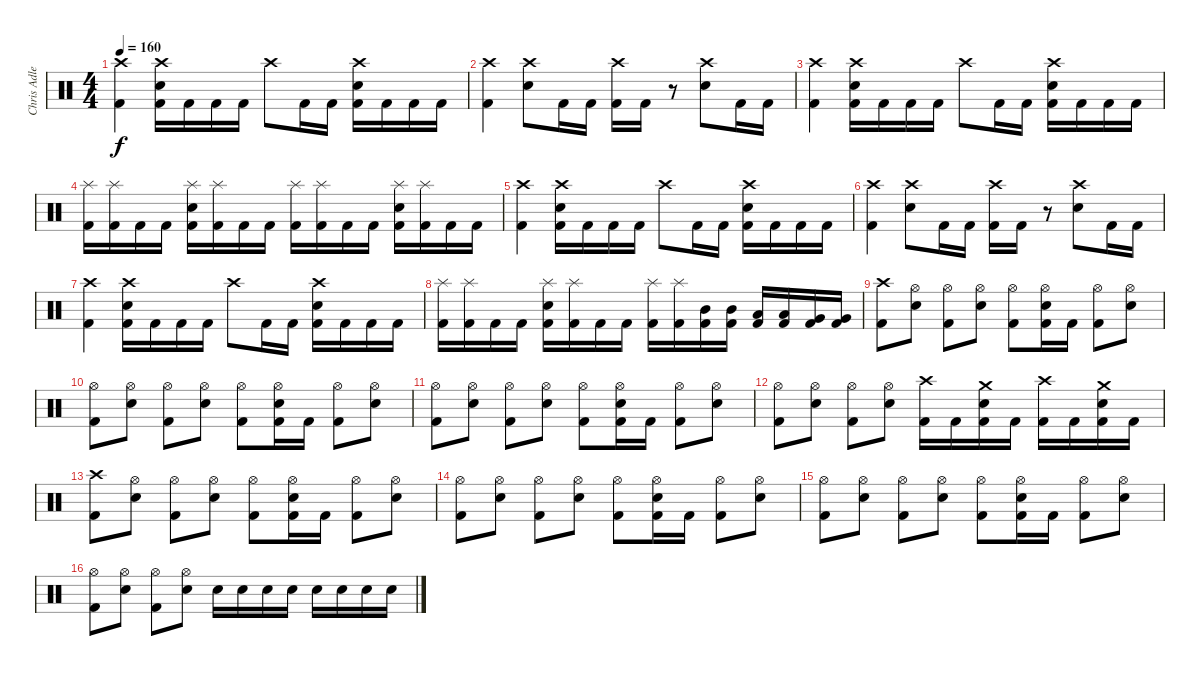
\track ("Chris Adler" "Chris Adle") {instrument percussion}
\staff {score}
\articulation defaults
\ts (4 4)
\tempo 160
\clef neutral
\ks c
("Crash high (hit)" "Kick (hit) 2").4{dy f} ("Crash high (hit)" "Electric Snare (hit)" "Kick (hit) 2").16 "Kick (hit) 2".16 "Kick (hit) 2".16 "Kick (hit) 2".16 "Crash high (hit)".8 "Kick (hit) 2".16 "Kick (hit) 2".16 ("Crash high (hit)" "Electric Snare (hit)" "Kick (hit) 2").16 "Kick (hit) 2".16 "Kick (hit) 2".16 "Kick (hit) 2".16 |
("Crash high (hit)" "Kick (hit) 2").4 ("Crash high (hit)" "Electric Snare (hit)").8 "Kick (hit) 2".16 "Kick (hit) 2".16 ("Crash high (hit)" "Kick (hit) 2").16 "Kick (hit) 2".16 r.8 ("Crash high (hit)" "Electric Snare (hit)").8 "Kick (hit) 2".16 "Kick (hit) 2".16 |
("Crash high (hit)" "Kick (hit) 2").4 ("Crash high (hit)" "Electric Snare (hit)" "Kick (hit) 2").16 "Kick (hit) 2".16 "Kick (hit) 2".16 "Kick (hit) 2".16 "Crash high (hit)".8 "Kick (hit) 2".16 "Kick (hit) 2".16 ("Crash high (hit)" "Electric Snare (hit)" "Kick (hit) 2").16 "Kick (hit) 2".16 "Kick (hit) 2".16 "Kick (hit) 2".16 |
("Splash (hit)" "Kick (hit) 2").16 ("Splash (hit)" "Kick (hit) 2").16 "Kick (hit) 2".16 "Kick (hit) 2".16 ("Splash (hit)" "Electric Snare (hit)" "Kick (hit) 2").16 ("Splash (hit)" "Kick (hit) 2").16 "Kick (hit) 2".16 "Kick (hit) 2".16 ("Splash (hit)" "Kick (hit) 2").16 ("Splash (hit)" "Kick (hit) 2").16 "Kick (hit) 2".16 "Kick (hit) 2".16 ("Splash (hit)" "Electric Snare (hit)" "Kick (hit) 2").16 ("Splash (hit)" "Kick (hit) 2").16 "Kick (hit) 2".16 "Kick (hit) 2".16 |
("Crash high (hit)" "Kick (hit) 2").4 ("Crash high (hit)" "Electric Snare (hit)" "Kick (hit) 2").16 "Kick (hit) 2".16 "Kick (hit) 2".16 "Kick (hit) 2".16 "Crash high (hit)".8 "Kick (hit) 2".16 "Kick (hit) 2".16 ("Crash high (hit)" "Electric Snare (hit)" "Kick (hit) 2").16 "Kick (hit) 2".16 "Kick (hit) 2".16 "Kick (hit) 2".16 |
("Crash high (hit)" "Kick (hit) 2").4 ("Crash high (hit)" "Electric Snare (hit)").8 "Kick (hit) 2".16 "Kick (hit) 2".16 ("Crash high (hit)" "Kick (hit) 2").16 "Kick (hit) 2".16 r.8 ("Crash high (hit)" "Electric Snare (hit)").8 "Kick (hit) 2".16 "Kick (hit) 2".16 |
("Crash high (hit)" "Kick (hit) 2").4 ("Crash high (hit)" "Electric Snare (hit)" "Kick (hit) 2").16 "Kick (hit) 2".16 "Kick (hit) 2".16 "Kick (hit) 2".16 "Crash high (hit)".8 "Kick (hit) 2".16 "Kick (hit) 2".16 ("Crash high (hit)" "Electric Snare (hit)" "Kick (hit) 2").16 "Kick (hit) 2".16 "Kick (hit) 2".16 "Kick (hit) 2".16 |
("Splash (hit)" "Kick (hit) 2").16 ("Splash (hit)" "Kick (hit) 2").16 "Kick (hit) 2".16 "Kick (hit) 2".16 ("Splash (hit)" "Electric Snare (hit)" "Kick (hit) 2").16 ("Splash (hit)" "Kick (hit) 2").16 "Kick (hit) 2".16 "Kick (hit) 2".16 ("Splash (hit)" "Kick (hit) 2").16 ("Splash (hit)" "Kick (hit) 2").16 ("Mid Tom (hit)" "Kick (hit) 2").16 ("Mid Tom (hit)" "Kick (hit) 2").16 ("Low Tom (hit)" "Kick (hit) 2").16 ("Low Tom (hit)" "Kick (hit) 2").16 ("Very Low Tom (hit)" "Kick (hit) 2").16 ("Very Low Tom (hit)" "Kick (hit) 2").16 |
("Crash high (hit)" "Kick (hit) 2").8 ("Hi-Hat (open)" "Electric Snare (hit)").8 ("Hi-Hat (open)" "Kick (hit) 2").8 ("Hi-Hat (open)" "Electric Snare (hit)").8 ("Hi-Hat (open)" "Kick (hit) 2").8 ("Hi-Hat (open)" "Electric Snare (hit)" "Kick (hit) 2").16 "Kick (hit) 2".16 ("Hi-Hat (open)" "Kick (hit) 2").8 ("Hi-Hat (open)" "Electric Snare (hit)").8 |
("Hi-Hat (open)" "Kick (hit) 2").8 ("Hi-Hat (open)" "Electric Snare (hit)").8 ("Hi-Hat (open)" "Kick (hit) 2").8 ("Hi-Hat (open)" "Electric Snare (hit)").8 ("Hi-Hat (open)" "Kick (hit) 2").8 ("Hi-Hat (open)" "Electric Snare (hit)" "Kick (hit) 2").16 "Kick (hit) 2".16 ("Hi-Hat (open)" "Kick (hit) 2").8 ("Hi-Hat (open)" "Electric Snare (hit)").8 |
("Hi-Hat (open)" "Kick (hit) 2").8 ("Hi-Hat (open)" "Electric Snare (hit)").8 ("Hi-Hat (open)" "Kick (hit) 2").8 ("Hi-Hat (open)" "Electric Snare (hit)").8 ("Hi-Hat (open)" "Kick (hit) 2").8 ("Hi-Hat (open)" "Electric Snare (hit)" "Kick (hit) 2").16 "Kick (hit) 2".16 ("Hi-Hat (open)" "Kick (hit) 2").8 ("Hi-Hat (open)" "Electric Snare (hit)").8 |
("Hi-Hat (open)" "Kick (hit) 2").8 ("Hi-Hat (open)" "Electric Snare (hit)").8 ("Hi-Hat (open)" "Kick (hit) 2").8 ("Hi-Hat (open)" "Electric Snare (hit)").8 ("Crash high (hit)" "Kick (hit) 2").16 "Kick (hit) 2".16 ("Crash medium (hit)" "Electric Snare (hit)" "Kick (hit) 2").16 "Kick (hit) 2".16 ("Crash high (hit)" "Kick (hit) 2").16 "Kick (hit) 2".16 ("Crash medium (hit)" "Electric Snare (hit)" "Kick (hit) 2").16 "Kick (hit) 2".16 |
("Crash high (hit)" "Kick (hit) 2").8 ("Hi-Hat (open)" "Electric Snare (hit)").8 ("Hi-Hat (open)" "Kick (hit) 2").8 ("Hi-Hat (open)" "Electric Snare (hit)").8 ("Hi-Hat (open)" "Kick (hit) 2").8 ("Hi-Hat (open)" "Electric Snare (hit)" "Kick (hit) 2").16 "Kick (hit) 2".16 ("Hi-Hat (open)" "Kick (hit) 2").8 ("Hi-Hat (open)" "Electric Snare (hit)").8 |
("Hi-Hat (open)" "Kick (hit) 2").8 ("Hi-Hat (open)" "Electric Snare (hit)").8 ("Hi-Hat (open)" "Kick (hit) 2").8 ("Hi-Hat (open)" "Electric Snare (hit)").8 ("Hi-Hat (open)" "Kick (hit) 2").8 ("Hi-Hat (open)" "Electric Snare (hit)" "Kick (hit) 2").16 "Kick (hit) 2".16 ("Hi-Hat (open)" "Kick (hit) 2").8 ("Hi-Hat (open)" "Electric Snare (hit)").8 |
("Hi-Hat (open)" "Kick (hit) 2").8 ("Hi-Hat (open)" "Electric Snare (hit)").8 ("Hi-Hat (open)" "Kick (hit) 2").8 ("Hi-Hat (open)" "Electric Snare (hit)").8 ("Hi-Hat (open)" "Kick (hit) 2").8 ("Hi-Hat (open)" "Electric Snare (hit)" "Kick (hit) 2").16 "Kick (hit) 2".16 ("Hi-Hat (open)" "Kick (hit) 2").8 ("Hi-Hat (open)" "Electric Snare (hit)").8 |
("Hi-Hat (open)" "Kick (hit) 2").8 ("Hi-Hat (open)" "Electric Snare (hit)").8 ("Hi-Hat (open)" "Kick (hit) 2").8 ("Hi-Hat (open)" "Electric Snare (hit)").8 "Electric Snare (hit)".16 "Electric Snare (hit)".16 "Electric Snare (hit)".16 "Electric Snare (hit)".16 "Electric Snare (hit)".16 "Electric Snare (hit)".16 "Electric Snare (hit)".16 "Electric Snare (hit)".16
